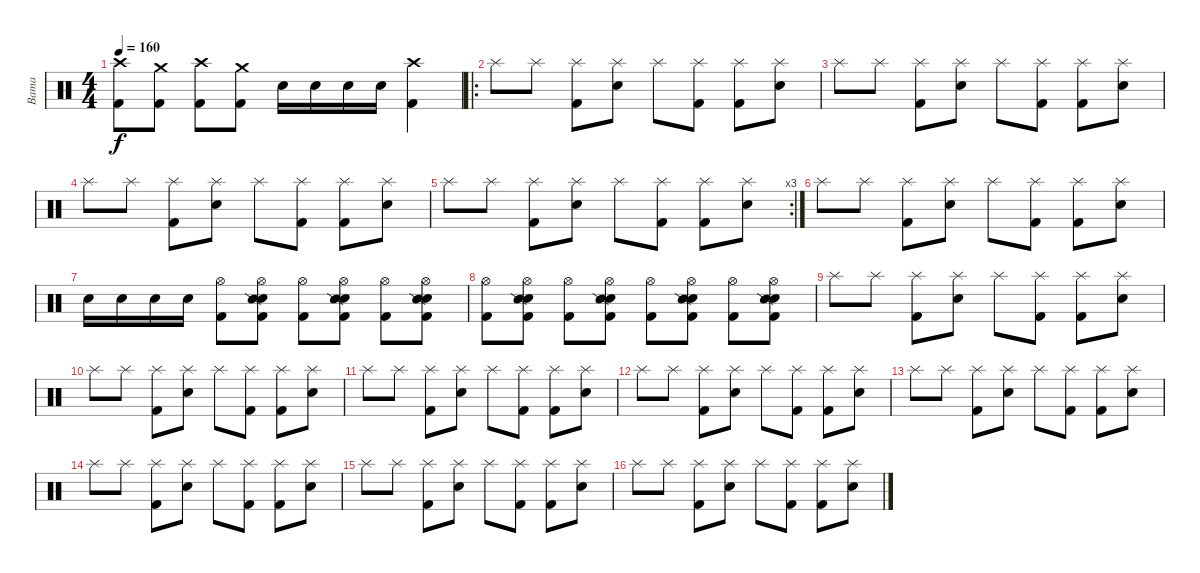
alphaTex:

\track ("Bama" "Bama") {instrument percussion}
\staff {score}
\articulation defaults
\ts (4 4)
\tempo 160
\clef neutral
\ks c
("Crash high (hit)" "Kick (hit) 2").8{dy f} ("Crash medium (hit)" "Kick (hit) 2").8 ("Crash high (hit)" "Kick (hit) 2").8 ("Crash medium (hit)" "Kick (hit) 2").8 "Electric Snare (hit)".16 "Electric Snare (hit)".16 "Electric Snare (hit)".16 "Electric Snare (hit)".16 ("Crash high (hit)" "Kick (hit) 2").4 |
\ro "Splash (hit)".8 "Splash (hit)".8
("Splash (hit)" "Kick (hit) 2").8 ("Splash (hit)" "Electric Snare (hit)").8 "Splash (hit)".8 ("Splash (hit)" "Kick (hit) 2").8 ("Splash (hit)" "Kick (hit) 2").8 ("Splash (hit)" "Electric Snare (hit)").8 |
"Splash (hit)".8 "Splash (hit)".8 ("Splash (hit)" "Kick (hit) 2").8 ("Splash (hit)" "Electric Snare (hit)").8 "Splash (hit)".8 ("Splash (hit)" "Kick (hit) 2").8 ("Splash (hit)" "Kick (hit) 2").8 ("Splash (hit)" "Electric Snare (hit)").8 |
"Splash (hit)".8 "Splash (hit)".8 ("Splash (hit)" "Kick (hit) 2").8 ("Splash (hit)" "Electric Snare (hit)").8 "Splash (hit)".8 ("Splash (hit)" "Kick (hit) 2").8 ("Splash (hit)" "Kick (hit) 2").8 ("Splash (hit)" "Electric Snare (hit)").8 |
\rc 3 "Splash (hit)".8 "Splash (hit)".8
("Splash (hit)" "Kick (hit) 2").8 ("Splash (hit)" "Electric Snare (hit)").8 "Splash (hit)".8 ("Splash (hit)" "Kick (hit) 2").8 ("Splash (hit)" "Kick (hit) 2").8 ("Splash (hit)" "Electric Snare (hit)").8 |
"Splash (hit)".8 "Splash (hit)".8 ("Splash (hit)" "Kick (hit) 2").8 ("Splash (hit)" "Electric Snare (hit)").8 "Splash (hit)".8 ("Splash (hit)" "Kick (hit) 2").8 ("Splash (hit)" "Kick (hit) 2").8 ("Splash (hit)" "Electric Snare (hit)").8 |
"Electric Snare (hit)".16 "Electric Snare (hit)".16 "Electric Snare (hit)".16 "Electric Snare (hit)".16 ("Hi-Hat (open)" "Kick (hit) 2").8 ("Hi-Hat (open)" "Electric Snare (hit)" "Snare (side stick) 2" "Kick (hit) 2").8 ("Hi-Hat (open)" "Kick (hit) 2").8 ("Hi-Hat (open)" "Electric Snare (hit)" "Snare (side stick) 2" "Kick (hit) 2").8 ("Hi-Hat (open)" "Kick (hit) 2").8 ("Hi-Hat (open)" "Electric Snare (hit)" "Snare (side stick) 2" "Kick (hit) 2").8 |
("Hi-Hat (open)" "Kick (hit) 2").8 ("Hi-Hat (open)" "Electric Snare (hit)" "Snare (side stick) 2" "Kick (hit) 2").8 ("Hi-Hat (open)" "Kick (hit) 2").8 ("Hi-Hat (open)" "Electric Snare (hit)" "Snare (side stick) 2" "Kick (hit) 2").8 ("Hi-Hat (open)" "Kick (hit) 2").8 ("Hi-Hat (open)" "Electric Snare (hit)" "Snare (side stick) 2" "Kick (hit) 2").8 ("Hi-Hat (open)" "Kick (hit) 2").8 ("Hi-Hat (open)" "Electric Snare (hit)" "Snare (side stick) 2" "Kick (hit) 2").8 |
"Splash (hit)".8 "Splash (hit)".8 ("Splash (hit)" "Kick (hit) 2").8 ("Splash (hit)" "Electric Snare (hit)").8 "Splash (hit)".8 ("Splash (hit)" "Kick (hit) 2").8 ("Splash (hit)" "Kick (hit) 2").8 ("Splash (hit)" "Electric Snare (hit)").8 |
"Splash (hit)".8 "Splash (hit)".8 ("Splash (hit)" "Kick (hit) 2").8 ("Splash (hit)" "Electric Snare (hit)").8 "Splash (hit)".8 ("Splash (hit)" "Kick (hit) 2").8 ("Splash (hit)" "Kick (hit) 2").8 ("Splash (hit)" "Electric Snare (hit)").8 |
"Splash (hit)".8 "Splash (hit)".8 ("Splash (hit)" "Kick (hit) 2").8 ("Splash (hit)" "Electric Snare (hit)").8 "Splash (hit)".8 ("Splash (hit)" "Kick (hit) 2").8 ("Splash (hit)" "Kick (hit) 2").8 ("Splash (hit)" "Electric Snare (hit)").8 |
"Splash (hit)".8 "Splash (hit)".8 ("Splash (hit)" "Kick (hit) 2").8 ("Splash (hit)" "Electric Snare (hit)").8 "Splash (hit)".8 ("Splash (hit)" "Kick (hit) 2").8 ("Splash (hit)" "Kick (hit) 2").8 ("Splash (hit)" "Electric Snare (hit)").8 |
"Splash (hit)".8 "Splash (hit)".8 ("Splash (hit)" "Kick (hit) 2").8 ("Splash (hit)" "Electric Snare (hit)").8 "Splash (hit)".8 ("Splash (hit)" "Kick (hit) 2").8 ("Splash (hit)" "Kick (hit) 2").8 ("Splash (hit)" "Electric Snare (hit)").8 |
"Splash (hit)".8 "Splash (hit)".8 ("Splash (hit)" "Kick (hit) 2").8 ("Splash (hit)" "Electric Snare (hit)").8 "Splash (hit)".8 ("Splash (hit)" "Kick (hit) 2").8 ("Splash (hit)" "Kick (hit) 2").8 ("Splash (hit)" "Electric Snare (hit)").8 |
"Splash (hit)".8 "Splash (hit)".8 ("Splash (hit)" "Kick (hit) 2").8 ("Splash (hit)" "Electric Snare (hit)").8 "Splash (hit)".8 ("Splash (hit)" "Kick (hit) 2").8 ("Splash (hit)" "Kick (hit) 2").8 ("Splash (hit)" "Electric Snare (hit)").8 |
"Splash (hit)".8 "Splash (hit)".8 ("Splash (hit)" "Kick (hit) 2").8 ("Splash (hit)" "Electric Snare (hit)").8 "Splash (hit)".8 ("Splash (hit)" "Kick (hit) 2").8 ("Splash (hit)" "Kick (hit) 2").8 ("Splash (hit)" "Electric Snare (hit)").8
